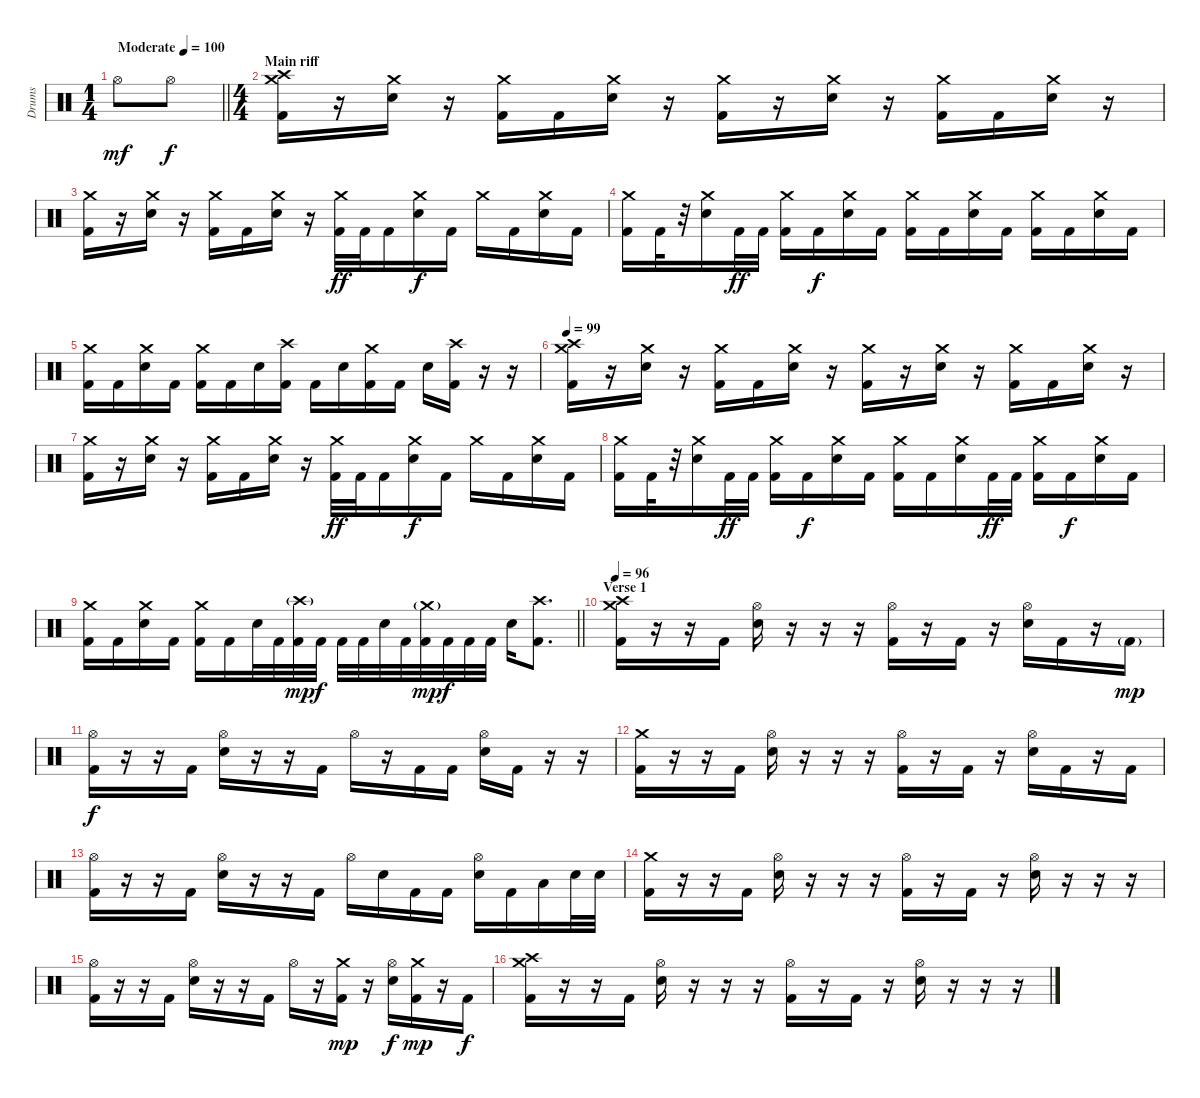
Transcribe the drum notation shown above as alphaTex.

\track ("Drums" "Drums") {instrument percussion}
\staff {score}
\articulation defaults
\ts (1 4)
\tempo (100 "Moderate")
\clef neutral
\barLineRight lightlight
\ks c "Hi-Hat (open)".8{dy mf} "Hi-Hat (open)".8{dy f}
|
\ts (4 4)
\section ("" "Main riff")
("Crash high (hit)" "Crash medium (hit)" "Kick (hit) 2").16 r.16 ("Crash medium (hit)" "Electric Snare (hit)").16 r.16 ("Crash medium (hit)" "Kick (hit) 2").16 "Kick (hit) 2".16 ("Crash medium (hit)" "Electric Snare (hit)").16 r.16 ("Crash medium (hit)" "Kick (hit) 2").16 r.16 ("Crash medium (hit)" "Electric Snare (hit)").16 r.16 ("Crash medium (hit)" "Kick (hit) 2").16 "Kick (hit) 2".16 ("Crash medium (hit)" "Electric Snare (hit)").16 r.16 |
("Crash medium (hit)" "Kick (hit) 2").16 r.16 ("Crash medium (hit)" "Electric Snare (hit)").16 r.16 ("Crash medium (hit)" "Kick (hit) 2").16 "Kick (hit) 2".16 ("Crash medium (hit)" "Electric Snare (hit)").16 r.16 ("Crash medium (hit)" "Kick (hit) 2").32{dy ff} "Kick (hit) 2".32 "Kick (hit) 2".16 ("Crash medium (hit)" "Electric Snare (hit)").16{dy f} "Kick (hit) 2".16 "Crash medium (hit)".16 "Kick (hit) 2".16 ("Crash medium (hit)" "Electric Snare (hit)").16 "Kick (hit) 2".16 |
("Crash medium (hit)" "Kick (hit) 2").16 "Kick (hit) 2".32 r.32 ("Crash medium (hit)" "Electric Snare (hit)").16 "Kick (hit) 2".32{dy ff} "Kick (hit) 2".32 ("Crash medium (hit)" "Kick (hit) 2").16 "Kick (hit) 2".16{dy f} ("Crash medium (hit)" "Electric Snare (hit)").16 "Kick (hit) 2".16 ("Crash medium (hit)" "Kick (hit) 2").16 "Kick (hit) 2".16 ("Crash medium (hit)" "Electric Snare (hit)").16 "Kick (hit) 2".16 ("Crash medium (hit)" "Kick (hit) 2").16 "Kick (hit) 2".16 ("Crash medium (hit)" "Electric Snare (hit)").16 "Kick (hit) 2".16 |
("Crash medium (hit)" "Kick (hit) 2").16 "Kick (hit) 2".16 ("Crash medium (hit)" "Electric Snare (hit)").16 "Kick (hit) 2".16 ("Crash medium (hit)" "Kick (hit) 2").16 "Kick (hit) 2".16 "Electric Snare (hit)".16 ("Crash high (hit)" "Kick (hit) 2").16 "Kick (hit) 2".16 "Electric Snare (hit)".16 ("Crash medium (hit)" "Kick (hit) 2").16 "Kick (hit) 2".16 "Electric Snare (hit)".16 ("Crash high (hit)" "Kick (hit) 2").16 r.16 r.16 |
\tempo 99
("Crash high (hit)" "Crash medium (hit)" "Kick (hit) 2").16 r.16 ("Crash medium (hit)" "Electric Snare (hit)").16 r.16 ("Crash medium (hit)" "Kick (hit) 2").16 "Kick (hit) 2".16 ("Crash medium (hit)" "Electric Snare (hit)").16 r.16 ("Crash medium (hit)" "Kick (hit) 2").16 r.16 ("Crash medium (hit)" "Electric Snare (hit)").16 r.16 ("Crash medium (hit)" "Kick (hit) 2").16 "Kick (hit) 2".16 ("Crash medium (hit)" "Electric Snare (hit)").16 r.16 |
("Crash medium (hit)" "Kick (hit) 2").16 r.16 ("Crash medium (hit)" "Electric Snare (hit)").16 r.16 ("Crash medium (hit)" "Kick (hit) 2").16 "Kick (hit) 2".16 ("Crash medium (hit)" "Electric Snare (hit)").16 r.16 ("Crash medium (hit)" "Kick (hit) 2").32{dy ff} "Kick (hit) 2".32 "Kick (hit) 2".16 ("Crash medium (hit)" "Electric Snare (hit)").16{dy f} "Kick (hit) 2".16 "Crash medium (hit)".16 "Kick (hit) 2".16 ("Crash medium (hit)" "Electric Snare (hit)").16 "Kick (hit) 2".16 |
("Crash medium (hit)" "Kick (hit) 2").16 "Kick (hit) 2".32 r.32 ("Crash medium (hit)" "Electric Snare (hit)").16 "Kick (hit) 2".32{dy ff} "Kick (hit) 2".32 ("Crash medium (hit)" "Kick (hit) 2").16 "Kick (hit) 2".16{dy f} ("Crash medium (hit)" "Electric Snare (hit)").16 "Kick (hit) 2".16 ("Crash medium (hit)" "Kick (hit) 2").16 "Kick (hit) 2".16 ("Crash medium (hit)" "Electric Snare (hit)").16 "Kick (hit) 2".32{dy ff} "Kick (hit) 2".32 ("Crash medium (hit)" "Kick (hit) 2").16 "Kick (hit) 2".16{dy f} ("Crash medium (hit)" "Electric Snare (hit)").16 "Kick (hit) 2".16 |
\barLineRight lightlight
("Crash medium (hit)" "Kick (hit) 2").16 "Kick (hit) 2".16 ("Crash medium (hit)" "Electric Snare (hit)").16 "Kick (hit) 2".16 ("Crash medium (hit)" "Kick (hit) 2").16 "Kick (hit) 2".16 "Electric Snare (hit)".32 "Kick (hit) 2".32 ("Crash high (hit)"{g} "Kick (hit) 2").32{dy mp} "Kick (hit) 2".32{dy f} "Kick (hit) 2".32 "Kick (hit) 2".32 "Electric Snare (hit)".32 "Kick (hit) 2".32 ("Crash medium (hit)"{g} "Kick (hit) 2").32{dy mp} "Kick (hit) 2".32{dy f} "Kick (hit) 2".32 "Kick (hit) 2".32 "Electric Snare (hit)".16 ("Crash high (hit)" "Kick (hit) 2").8{d} |
\section ("" "Verse 1")
\tempo 96
("Crash high (hit)" "Crash medium (hit)" "Kick (hit) 2").16 r.16 r.16 "Kick (hit) 2".16 ("Hi-Hat (open)" "Electric Snare (hit)").16 r.16 r.16 r.16 ("Hi-Hat (open)" "Kick (hit) 2").16 r.16 "Kick (hit) 2".16 r.16 ("Hi-Hat (open)" "Electric Snare (hit)").16 "Kick (hit) 2".16 r.16 "Kick (hit) 2"{g}.16{dy mp} |
("Hi-Hat (open)" "Kick (hit) 2").16{dy f} r.16 r.16 "Kick (hit) 2".16 ("Hi-Hat (open)" "Electric Snare (hit)").16 r.16 r.16 "Kick (hit) 2".16 "Hi-Hat (open)".16 r.16 "Kick (hit) 2".16 "Kick (hit) 2".16 ("Hi-Hat (open)" "Electric Snare (hit)").16 "Kick (hit) 2".16 r.16 r.16 |
("Crash medium (hit)" "Kick (hit) 2").16 r.16 r.16 "Kick (hit) 2".16 ("Hi-Hat (open)" "Electric Snare (hit)").16 r.16 r.16 r.16 ("Hi-Hat (open)" "Kick (hit) 2").16 r.16 "Kick (hit) 2".16 r.16 ("Hi-Hat (open)" "Electric Snare (hit)").16 "Kick (hit) 2".16 r.16 "Kick (hit) 2".16 |
("Hi-Hat (open)" "Kick (hit) 2").16 r.16 r.16 "Kick (hit) 2".16 ("Hi-Hat (open)" "Electric Snare (hit)").16 r.16 r.16 "Kick (hit) 2".16 "Hi-Hat (open)".16 "Electric Snare (hit)".16 "Kick (hit) 2".16 "Kick (hit) 2".16 ("Hi-Hat (open)" "Electric Snare (hit)").16 "Kick (hit) 2".16 "Low Tom (hit)".16 "Electric Snare (hit)".32 "Electric Snare (hit)".32 |
("Crash medium (hit)" "Kick (hit) 2").16 r.16 r.16 "Kick (hit) 2".16 ("Hi-Hat (open)" "Electric Snare (hit)").16 r.16 r.16 r.16 ("Hi-Hat (open)" "Kick (hit) 2").16 r.16 "Kick (hit) 2".16 r.16 ("Hi-Hat (open)" "Electric Snare (hit)").16 r.16 r.16 r.16 |
("Hi-Hat (open)" "Kick (hit) 2").16 r.16 r.16 "Kick (hit) 2".16 ("Hi-Hat (open)" "Electric Snare (hit)").16 r.16 r.16 "Kick (hit) 2".16 "Hi-Hat (open)".16 r.16 ("Crash medium (hit)" "Kick (hit) 2").16{dy mp} r.16 ("Hi-Hat (open)" "Electric Snare (hit)").16{dy f} ("Crash medium (hit)" "Kick (hit) 2").16{dy mp} r.16 "Kick (hit) 2".16{dy f} |
("Crash high (hit)" "Crash medium (hit)" "Kick (hit) 2").16 r.16 r.16 "Kick (hit) 2".16 ("Hi-Hat (open)" "Electric Snare (hit)").16 r.16 r.16 r.16 ("Hi-Hat (open)" "Kick (hit) 2").16 r.16 "Kick (hit) 2".16 r.16 ("Hi-Hat (open)" "Electric Snare (hit)").16 r.16 r.16 r.16
